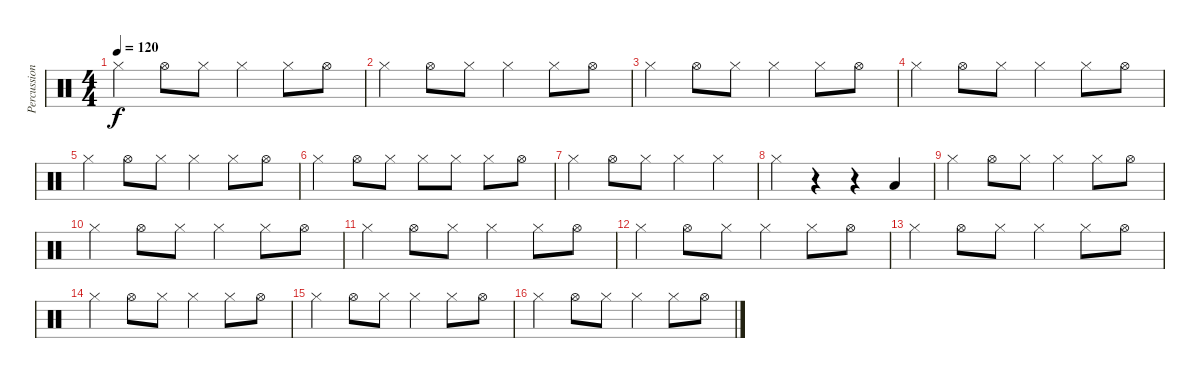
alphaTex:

\track ("Percussion" "Percussion") {instrument percussion}
\staff {score}
\articulation defaults
\ts (4 4)
\tempo 120
\clef neutral
\ks aminor "Hi-Hat (closed)".4{dy f} "Hi-Hat (open)".8 "Hi-Hat (closed)".8 "Hi-Hat (closed)".4 "Hi-Hat (closed)".8 "Hi-Hat (open)".8
|
"Hi-Hat (closed)".4 "Hi-Hat (open)".8 "Hi-Hat (closed)".8 "Hi-Hat (closed)".4 "Hi-Hat (closed)".8 "Hi-Hat (open)".8 |
"Hi-Hat (closed)".4 "Hi-Hat (open)".8 "Hi-Hat (closed)".8 "Hi-Hat (closed)".4 "Hi-Hat (closed)".8 "Hi-Hat (open)".8 |
"Hi-Hat (closed)".4 "Hi-Hat (open)".8 "Hi-Hat (closed)".8 "Hi-Hat (closed)".4 "Hi-Hat (closed)".8 "Hi-Hat (open)".8 |
"Hi-Hat (closed)".4 "Hi-Hat (open)".8 "Hi-Hat (closed)".8 "Hi-Hat (closed)".4 "Hi-Hat (closed)".8 "Hi-Hat (open)".8 |
"Hi-Hat (closed)".4 "Hi-Hat (open)".8 "Hi-Hat (closed)".8 "Hi-Hat (closed)".8 "Hi-Hat (closed)".8 "Hi-Hat (closed)".8 "Hi-Hat (open)".8 |
"Hi-Hat (closed)".4 "Hi-Hat (open)".8 "Hi-Hat (closed)".8 "Hi-Hat (closed)".4 "Hi-Hat (closed)".4 |
"Hi-Hat (closed)".4 r.4 r.4 "Low Floor Tom (hit)".4 |
"Hi-Hat (closed)".4 "Hi-Hat (open)".8 "Hi-Hat (closed)".8 "Hi-Hat (closed)".4 "Hi-Hat (closed)".8 "Hi-Hat (open)".8 |
"Hi-Hat (closed)".4 "Hi-Hat (open)".8 "Hi-Hat (closed)".8 "Hi-Hat (closed)".4 "Hi-Hat (closed)".8 "Hi-Hat (open)".8 |
"Hi-Hat (closed)".4 "Hi-Hat (open)".8 "Hi-Hat (closed)".8 "Hi-Hat (closed)".4 "Hi-Hat (closed)".8 "Hi-Hat (open)".8 |
"Hi-Hat (closed)".4 "Hi-Hat (open)".8 "Hi-Hat (closed)".8 "Hi-Hat (closed)".4 "Hi-Hat (closed)".8 "Hi-Hat (open)".8 |
"Hi-Hat (closed)".4 "Hi-Hat (open)".8 "Hi-Hat (closed)".8 "Hi-Hat (closed)".4 "Hi-Hat (closed)".8 "Hi-Hat (open)".8 |
"Hi-Hat (closed)".4 "Hi-Hat (open)".8 "Hi-Hat (closed)".8 "Hi-Hat (closed)".4 "Hi-Hat (closed)".8 "Hi-Hat (open)".8 |
"Hi-Hat (closed)".4 "Hi-Hat (open)".8 "Hi-Hat (closed)".8 "Hi-Hat (closed)".4 "Hi-Hat (closed)".8 "Hi-Hat (open)".8 |
"Hi-Hat (closed)".4 "Hi-Hat (open)".8 "Hi-Hat (closed)".8 "Hi-Hat (closed)".4 "Hi-Hat (closed)".8 "Hi-Hat (open)".8
